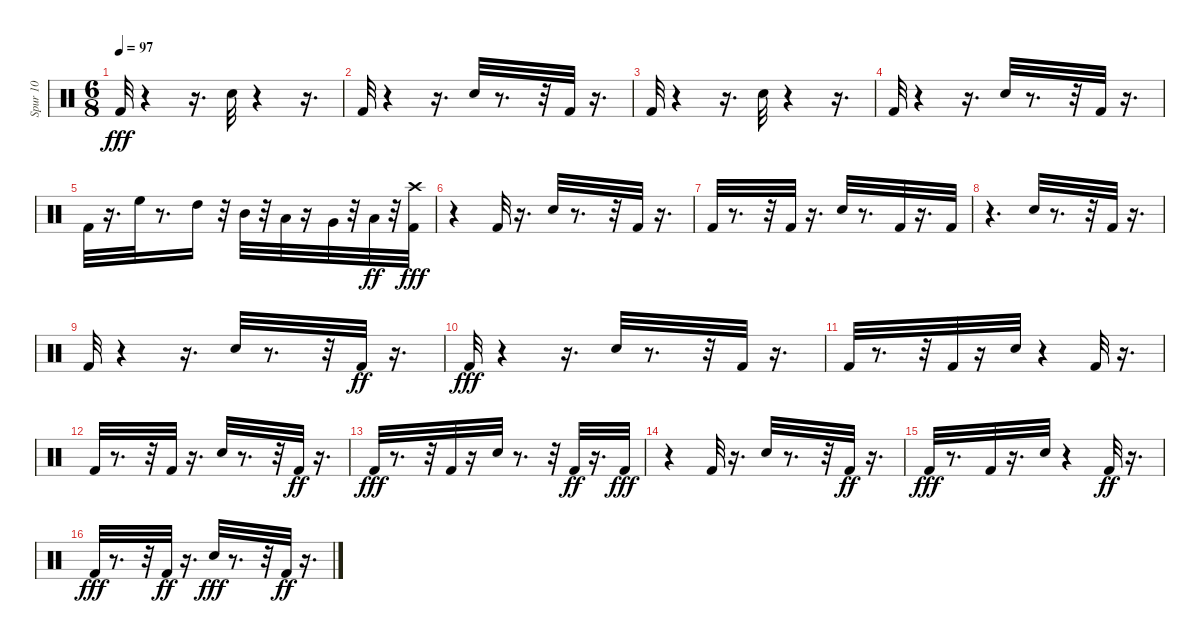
\track ("Spur 10" "Spur 10") {instrument percussion}
\staff {score}
\articulation defaults
\ts (6 8)
\tempo 97
\clef neutral
\ks c "Kick (hit) 2".32{dy fff}
r.4 r.16{d} "Electric Snare (hit)".32 r.4 r.16{d} |
"Kick (hit) 2".32 r.4 r.16{d} "Electric Snare (hit)".32 r.8{d} r.32 "Kick (hit) 2".32 r.16{d} |
"Kick (hit) 2".32 r.4 r.16{d} "Electric Snare (hit)".32 r.4 r.16{d} |
"Kick (hit) 2".32 r.4 r.16{d} "Electric Snare (hit)".32 r.8{d} r.32 "Kick (hit) 2".32 r.16{d} |
"Kick (hit) 2".32 r.16{d} "High Floor Tom (hit)".32 r.8{d} "High Tom (hit)".16 r.32 "Mid Tom (hit)".32 r.32 "Low Tom (hit)".32 r.16 "Very Low Tom (hit)".32 r.32 "Low Floor Tom (hit)".32{dy ff} r.32 ("Kick (hit) 2" "Crash high (hit)").32{dy fff} |
r.4 "Kick (hit) 2".32 r.16{d} "Electric Snare (hit)".32 r.8{d} r.32 "Kick (hit) 2".32 r.16{d} |
"Kick (hit) 2".32 r.8{d} r.32 "Kick (hit) 2".32 r.16{d} "Electric Snare (hit)".32 r.8{d} "Kick (hit) 2".32 r.16{d} "Kick (hit) 2".32 |
r.4{d} "Electric Snare (hit)".32 r.8{d} r.32 "Kick (hit) 2".32 r.16{d} |
"Kick (hit) 2".32 r.4 r.16{d} "Electric Snare (hit)".32 r.8{d} r.32 "Kick (hit) 2".32{dy ff} r.16{d} |
"Kick (hit) 2".32{dy fff} r.4 r.16{d} "Electric Snare (hit)".32 r.8{d} r.32 "Kick (hit) 2".32 r.16{d} |
"Kick (hit) 2".32 r.8{d} r.32 "Kick (hit) 2".32 r.16 "Electric Snare (hit)".32 r.4 "Kick (hit) 2".32 r.16{d} |
"Kick (hit) 2".32 r.8{d} r.32 "Kick (hit) 2".32 r.16{d} "Electric Snare (hit)".32 r.8{d} r.32 "Kick (hit) 2".32{dy ff} r.16{d} |
"Kick (hit) 2".32{dy fff} r.8{d} r.32 "Kick (hit) 2".32 r.16 "Electric Snare (hit)".32 r.8{d} r.32 "Kick (hit) 2".32{dy ff} r.16{d} "Kick (hit) 2".32{dy fff} |
r.4 "Kick (hit) 2".32 r.16{d} "Electric Snare (hit)".32 r.8{d} r.32 "Kick (hit) 2".32{dy ff} r.16{d} |
"Kick (hit) 2".32{dy fff} r.8{d} "Kick (hit) 2".32 r.16{d} "Electric Snare (hit)".32 r.4 "Kick (hit) 2".32{dy ff} r.16{d} |
"Kick (hit) 2".32{dy fff} r.8{d} r.32 "Kick (hit) 2".32{dy ff} r.16{d} "Electric Snare (hit)".32{dy fff} r.8{d} r.32 "Kick (hit) 2".32{dy ff} r.16{d}
